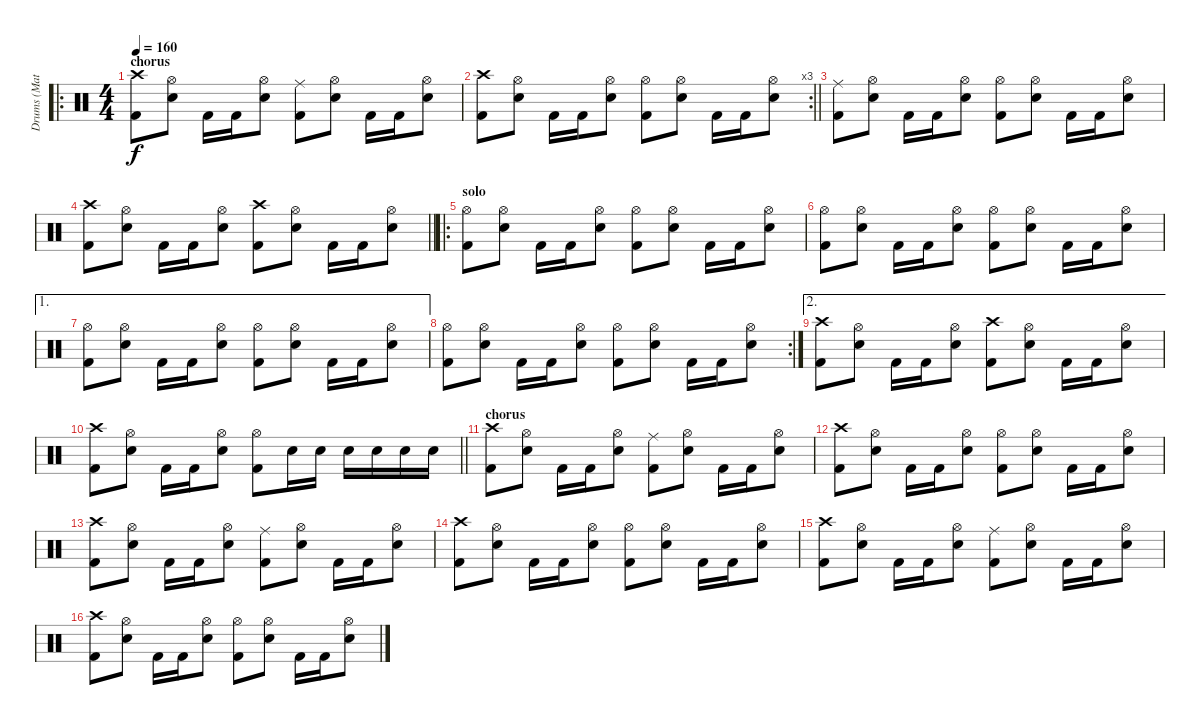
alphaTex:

\track ("Drums (Matt/Chris)" "Drums (Mat") {instrument percussion}
\staff {score}
\articulation defaults
\ro
\ts (4 4)
\section ("" "chorus")
\tempo 160
\clef neutral
\ks c
("Crash high (hit)" "Kick (hit) 2").8{dy f} ("Hi-Hat (open)" "Snare (hit) 2").8 "Kick (hit) 2".16 "Kick (hit) 2".16 ("Hi-Hat (open)" "Snare (hit) 2").8 ("Ride (middle)" "Kick (hit) 2").8 ("Hi-Hat (open)" "Snare (hit) 2").8 "Kick (hit) 2".16 "Kick (hit) 2".16 ("Hi-Hat (open)" "Snare (hit) 2").8 |
\rc 3
\barLineRight lightlight
("Crash high (hit)" "Kick (hit) 2").8 ("Hi-Hat (open)" "Snare (hit) 2").8 "Kick (hit) 2".16 "Kick (hit) 2".16 ("Hi-Hat (open)" "Snare (hit) 2").8 ("Hi-Hat (open)" "Kick (hit) 2").8 ("Hi-Hat (open)" "Snare (hit) 2").8 "Kick (hit) 2".16 "Kick (hit) 2".16 ("Hi-Hat (open)" "Snare (hit) 2").8 |
("Ride (middle)" "Kick (hit) 2").8 ("Hi-Hat (open)" "Snare (hit) 2").8 "Kick (hit) 2".16 "Kick (hit) 2".16 ("Hi-Hat (open)" "Snare (hit) 2").8 ("Hi-Hat (open)" "Kick (hit) 2").8 ("Hi-Hat (open)" "Snare (hit) 2").8 "Kick (hit) 2".16 "Kick (hit) 2".16 ("Hi-Hat (open)" "Snare (hit) 2").8 |
\barLineRight lightlight
("Crash high (hit)" "Kick (hit) 2").8 ("Hi-Hat (open)" "Snare (hit) 2").8 "Kick (hit) 2".16 "Kick (hit) 2".16 ("Hi-Hat (open)" "Snare (hit) 2").8 ("Crash high (hit)" "Kick (hit) 2").8 ("Hi-Hat (open)" "Snare (hit) 2").8 "Kick (hit) 2".16 "Kick (hit) 2".16 ("Hi-Hat (open)" "Snare (hit) 2").8 |
\ro
\section ("" "solo")
("Hi-Hat (open)" "Kick (hit) 2").8 ("Hi-Hat (open)" "Snare (hit) 2").8 "Kick (hit) 2".16 "Kick (hit) 2".16 ("Hi-Hat (open)" "Snare (hit) 2").8 ("Hi-Hat (open)" "Kick (hit) 2").8 ("Hi-Hat (open)" "Snare (hit) 2").8 "Kick (hit) 2".16 "Kick (hit) 2".16 ("Hi-Hat (open)" "Snare (hit) 2").8 |
("Hi-Hat (open)" "Kick (hit) 2").8 ("Hi-Hat (open)" "Snare (hit) 2").8 "Kick (hit) 2".16 "Kick (hit) 2".16 ("Hi-Hat (open)" "Snare (hit) 2").8 ("Hi-Hat (open)" "Kick (hit) 2").8 ("Hi-Hat (open)" "Snare (hit) 2").8 "Kick (hit) 2".16 "Kick (hit) 2".16 ("Hi-Hat (open)" "Snare (hit) 2").8 |
\ae 1
("Hi-Hat (open)" "Kick (hit) 2").8 ("Hi-Hat (open)" "Snare (hit) 2").8 "Kick (hit) 2".16 "Kick (hit) 2".16 ("Hi-Hat (open)" "Snare (hit) 2").8 ("Hi-Hat (open)" "Kick (hit) 2").8 ("Hi-Hat (open)" "Snare (hit) 2").8 "Kick (hit) 2".16 "Kick (hit) 2".16 ("Hi-Hat (open)" "Snare (hit) 2").8 |
\rc 2
("Hi-Hat (open)" "Kick (hit) 2").8 ("Hi-Hat (open)" "Snare (hit) 2").8 "Kick (hit) 2".16 "Kick (hit) 2".16 ("Hi-Hat (open)" "Snare (hit) 2").8 ("Hi-Hat (open)" "Kick (hit) 2").8 ("Hi-Hat (open)" "Snare (hit) 2").8 "Kick (hit) 2".16 "Kick (hit) 2".16 ("Hi-Hat (open)" "Snare (hit) 2").8 |
\ae 2
("Crash high (hit)" "Kick (hit) 2").8 ("Hi-Hat (open)" "Snare (hit) 2").8 "Kick (hit) 2".16 "Kick (hit) 2".16 ("Hi-Hat (open)" "Snare (hit) 2").8 ("Crash high (hit)" "Kick (hit) 2").8 ("Hi-Hat (open)" "Snare (hit) 2").8 "Kick (hit) 2".16 "Kick (hit) 2".16 ("Hi-Hat (open)" "Snare (hit) 2").8 |
\barLineRight lightlight
("Crash high (hit)" "Kick (hit) 2").8 ("Hi-Hat (open)" "Snare (hit) 2").8 "Kick (hit) 2".16 "Kick (hit) 2".16 ("Hi-Hat (open)" "Snare (hit) 2").8 ("Hi-Hat (open)" "Kick (hit) 2").8 "Snare (hit) 2".16 "Snare (hit) 2".16 "Snare (hit) 2".16 "Snare (hit) 2".16 "Snare (hit) 2".16 "Snare (hit) 2".16 |
\section ("" "chorus")
("Crash high (hit)" "Kick (hit) 2").8 ("Hi-Hat (open)" "Snare (hit) 2").8 "Kick (hit) 2".16 "Kick (hit) 2".16 ("Hi-Hat (open)" "Snare (hit) 2").8 ("Ride (middle)" "Kick (hit) 2").8 ("Hi-Hat (open)" "Snare (hit) 2").8 "Kick (hit) 2".16 "Kick (hit) 2".16 ("Hi-Hat (open)" "Snare (hit) 2").8 |
("Crash high (hit)" "Kick (hit) 2").8 ("Hi-Hat (open)" "Snare (hit) 2").8 "Kick (hit) 2".16 "Kick (hit) 2".16 ("Hi-Hat (open)" "Snare (hit) 2").8 ("Hi-Hat (open)" "Kick (hit) 2").8 ("Hi-Hat (open)" "Snare (hit) 2").8 "Kick (hit) 2".16 "Kick (hit) 2".16 ("Hi-Hat (open)" "Snare (hit) 2").8 |
("Crash high (hit)" "Kick (hit) 2").8 ("Hi-Hat (open)" "Snare (hit) 2").8 "Kick (hit) 2".16 "Kick (hit) 2".16 ("Hi-Hat (open)" "Snare (hit) 2").8 ("Ride (middle)" "Kick (hit) 2").8 ("Hi-Hat (open)" "Snare (hit) 2").8 "Kick (hit) 2".16 "Kick (hit) 2".16 ("Hi-Hat (open)" "Snare (hit) 2").8 |
("Crash high (hit)" "Kick (hit) 2").8 ("Hi-Hat (open)" "Snare (hit) 2").8 "Kick (hit) 2".16 "Kick (hit) 2".16 ("Hi-Hat (open)" "Snare (hit) 2").8 ("Hi-Hat (open)" "Kick (hit) 2").8 ("Hi-Hat (open)" "Snare (hit) 2").8 "Kick (hit) 2".16 "Kick (hit) 2".16 ("Hi-Hat (open)" "Snare (hit) 2").8 |
("Crash high (hit)" "Kick (hit) 2").8 ("Hi-Hat (open)" "Snare (hit) 2").8 "Kick (hit) 2".16 "Kick (hit) 2".16 ("Hi-Hat (open)" "Snare (hit) 2").8 ("Ride (middle)" "Kick (hit) 2").8 ("Hi-Hat (open)" "Snare (hit) 2").8 "Kick (hit) 2".16 "Kick (hit) 2".16 ("Hi-Hat (open)" "Snare (hit) 2").8 |
("Crash high (hit)" "Kick (hit) 2").8 ("Hi-Hat (open)" "Snare (hit) 2").8 "Kick (hit) 2".16 "Kick (hit) 2".16 ("Hi-Hat (open)" "Snare (hit) 2").8 ("Hi-Hat (open)" "Kick (hit) 2").8 ("Hi-Hat (open)" "Snare (hit) 2").8 "Kick (hit) 2".16 "Kick (hit) 2".16 ("Hi-Hat (open)" "Snare (hit) 2").8
